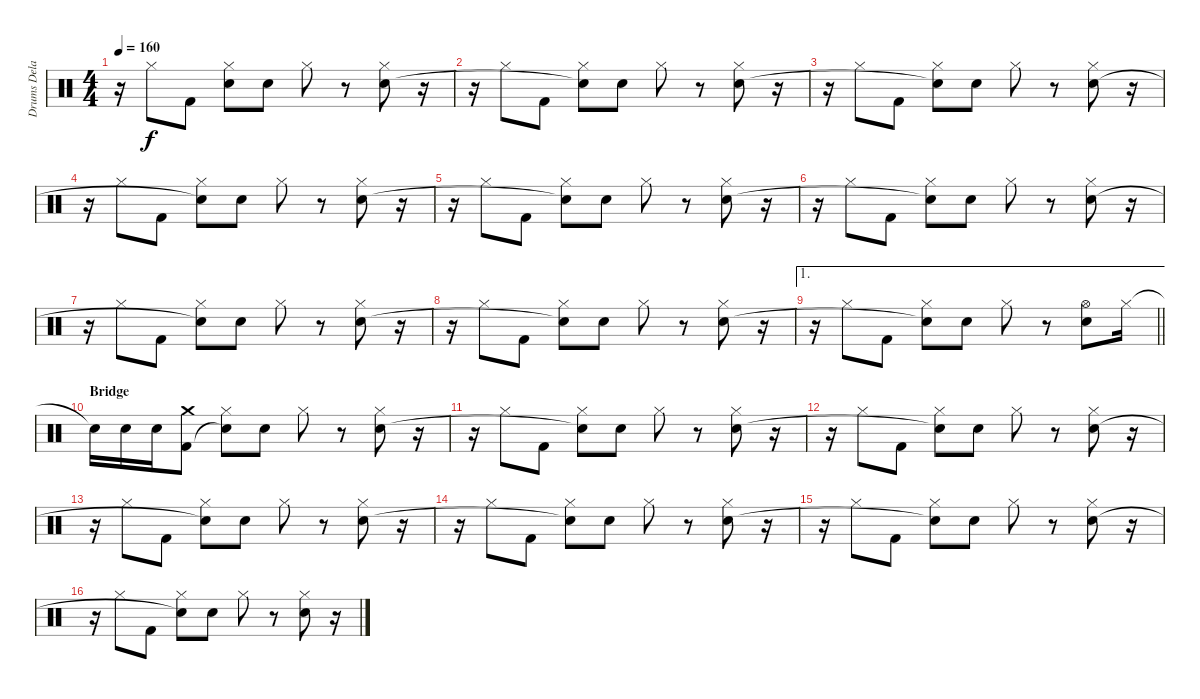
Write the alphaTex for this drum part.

\track ("Drums Delay 2" "Drums Dela") {instrument percussion}
\staff {score}
\articulation defaults
\ts (4 4)
\tempo 160
\clef neutral
\ks c
r.16{dy f} "Hi-Hat (closed)".8 "Kick (hit) 2".8 ("Hi-Hat (closed)" "Snare (hit)"{t}).8 "Electric Snare (hit)".8 "Hi-Hat (closed)".8 r.8 ("Hi-Hat (closed)" "Electric Snare (hit)").8 r.16 |
r.16 "Hi-Hat (closed)".8 "Kick (hit) 2".8 ("Hi-Hat (closed)" "Snare (hit)"{t}).8 "Electric Snare (hit)".8 "Hi-Hat (closed)".8 r.8 ("Hi-Hat (closed)" "Electric Snare (hit)").8 r.16 |
r.16 "Hi-Hat (closed)".8 "Kick (hit) 2".8 ("Hi-Hat (closed)" "Snare (hit)"{t}).8 "Electric Snare (hit)".8 "Hi-Hat (closed)".8 r.8 ("Hi-Hat (closed)" "Electric Snare (hit)").8 r.16 |
r.16 "Hi-Hat (closed)".8 "Kick (hit) 2".8 ("Hi-Hat (closed)" "Snare (hit)"{t}).8 "Electric Snare (hit)".8 "Hi-Hat (closed)".8 r.8 ("Hi-Hat (closed)" "Electric Snare (hit)").8 r.16 |
r.16 "Hi-Hat (closed)".8 "Kick (hit) 2".8 ("Hi-Hat (closed)" "Snare (hit)"{t}).8 "Electric Snare (hit)".8 "Hi-Hat (closed)".8 r.8 ("Hi-Hat (closed)" "Electric Snare (hit)").8 r.16 |
r.16 "Hi-Hat (closed)".8 "Kick (hit) 2".8 ("Hi-Hat (closed)" "Snare (hit)"{t}).8 "Electric Snare (hit)".8 "Hi-Hat (closed)".8 r.8 ("Hi-Hat (closed)" "Electric Snare (hit)").8 r.16 |
r.16 "Hi-Hat (closed)".8 "Kick (hit) 2".8 ("Hi-Hat (closed)" "Snare (hit)"{t}).8 "Electric Snare (hit)".8 "Hi-Hat (closed)".8 r.8 ("Hi-Hat (closed)" "Electric Snare (hit)").8 r.16 |
r.16 "Hi-Hat (closed)".8 "Kick (hit) 2".8 ("Hi-Hat (closed)" "Snare (hit)"{t}).8 "Electric Snare (hit)".8 "Hi-Hat (closed)".8 r.8 ("Hi-Hat (closed)" "Electric Snare (hit)").8 r.16 |
\ae 1
\barLineRight lightlight
r.16 "Hi-Hat (closed)".8 "Kick (hit) 2".8 ("Hi-Hat (closed)" "Snare (hit)"{t}).8 "Electric Snare (hit)".8 "Hi-Hat (closed)".8 r.8 ("Hi-Hat (open)" "Electric Snare (hit)").8 "Hi-Hat (closed)".16 |
\section ("" "Bridge")
"Snare (hit)"{t}.16 "Electric Snare (hit)".16 "Electric Snare (hit)".16 ("Crash medium (hit)" "Kick (hit) 2").8 ("Hi-Hat (closed)" "Snare (hit)"{t}).8 "Electric Snare (hit)".8 "Hi-Hat (closed)".8 r.8 ("Hi-Hat (closed)" "Electric Snare (hit)").8 r.16 |
r.16 "Hi-Hat (closed)".8 "Kick (hit) 2".8 ("Hi-Hat (closed)" "Snare (hit)"{t}).8 "Electric Snare (hit)".8 "Hi-Hat (closed)".8 r.8 ("Hi-Hat (closed)" "Electric Snare (hit)").8 r.16 |
r.16 "Hi-Hat (closed)".8 "Kick (hit) 2".8 ("Hi-Hat (closed)" "Snare (hit)"{t}).8 "Electric Snare (hit)".8 "Hi-Hat (closed)".8 r.8 ("Hi-Hat (closed)" "Electric Snare (hit)").8 r.16 |
r.16 "Hi-Hat (closed)".8 "Kick (hit) 2".8 ("Hi-Hat (closed)" "Snare (hit)"{t}).8 "Electric Snare (hit)".8 "Hi-Hat (closed)".8 r.8 ("Hi-Hat (closed)" "Electric Snare (hit)").8 r.16 |
r.16 "Hi-Hat (closed)".8 "Kick (hit) 2".8 ("Hi-Hat (closed)" "Snare (hit)"{t}).8 "Electric Snare (hit)".8 "Hi-Hat (closed)".8 r.8 ("Hi-Hat (closed)" "Electric Snare (hit)").8 r.16 |
r.16 "Hi-Hat (closed)".8 "Kick (hit) 2".8 ("Hi-Hat (closed)" "Snare (hit)"{t}).8 "Electric Snare (hit)".8 "Hi-Hat (closed)".8 r.8 ("Hi-Hat (closed)" "Electric Snare (hit)").8 r.16 |
r.16 "Hi-Hat (closed)".8 "Kick (hit) 2".8 ("Hi-Hat (closed)" "Snare (hit)"{t}).8 "Electric Snare (hit)".8 "Hi-Hat (closed)".8 r.8 ("Hi-Hat (closed)" "Electric Snare (hit)").8 r.16
